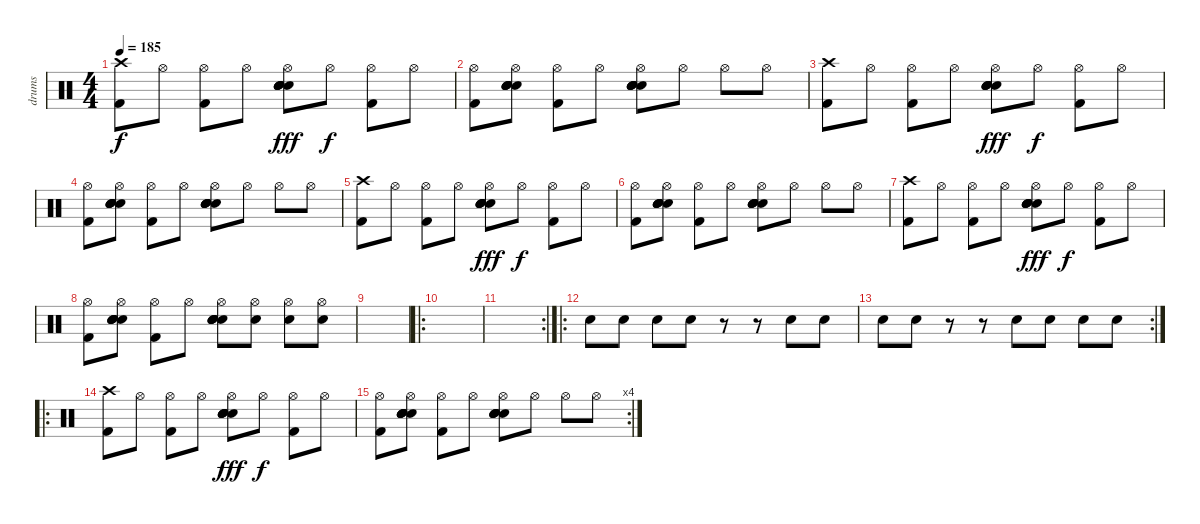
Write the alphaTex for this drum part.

\track ("drums" "drums") {instrument percussion}
\staff {score}
\articulation defaults
\ts (4 4)
\tempo 185
\clef neutral
\ks c
("Crash high (hit)" "Kick (hit) 2").8{dy f} "Hi-Hat (open)".8 ("Hi-Hat (open)" "Kick (hit) 2").8 "Hi-Hat (open)".8 ("Hi-Hat (open)" "Electric Snare (hit)" "Electric Snare (hit)" "Electric Snare (hit)" "Electric Snare (hit)" "Electric Snare (hit)").8{dy fff} "Hi-Hat (open)".8{dy f} ("Hi-Hat (open)" "Kick (hit) 2").8 "Hi-Hat (open)".8 |
("Hi-Hat (open)" "Kick (hit) 2").8 ("Hi-Hat (open)" "Electric Snare (hit)" "Electric Snare (hit)" "Electric Snare (hit)" "Electric Snare (hit)" "Electric Snare (hit)").8 ("Hi-Hat (open)" "Kick (hit) 2").8 "Hi-Hat (open)".8 ("Hi-Hat (open)" "Electric Snare (hit)" "Electric Snare (hit)" "Electric Snare (hit)" "Electric Snare (hit)" "Electric Snare (hit)").8 "Hi-Hat (open)".8 "Hi-Hat (open)".8 "Hi-Hat (open)".8 |
("Crash high (hit)" "Kick (hit) 2").8 "Hi-Hat (open)".8 ("Hi-Hat (open)" "Kick (hit) 2").8 "Hi-Hat (open)".8 ("Hi-Hat (open)" "Electric Snare (hit)" "Electric Snare (hit)" "Electric Snare (hit)" "Electric Snare (hit)" "Electric Snare (hit)").8{dy fff} "Hi-Hat (open)".8{dy f} ("Hi-Hat (open)" "Kick (hit) 2").8 "Hi-Hat (open)".8 |
("Hi-Hat (open)" "Kick (hit) 2").8 ("Hi-Hat (open)" "Electric Snare (hit)" "Electric Snare (hit)" "Electric Snare (hit)" "Electric Snare (hit)" "Electric Snare (hit)").8 ("Hi-Hat (open)" "Kick (hit) 2").8 "Hi-Hat (open)".8 ("Hi-Hat (open)" "Electric Snare (hit)" "Electric Snare (hit)" "Electric Snare (hit)" "Electric Snare (hit)" "Electric Snare (hit)").8 "Hi-Hat (open)".8 "Hi-Hat (open)".8 "Hi-Hat (open)".8 |
("Crash high (hit)" "Kick (hit) 2").8 "Hi-Hat (open)".8 ("Hi-Hat (open)" "Kick (hit) 2").8 "Hi-Hat (open)".8 ("Hi-Hat (open)" "Electric Snare (hit)" "Electric Snare (hit)" "Electric Snare (hit)" "Electric Snare (hit)" "Electric Snare (hit)").8{dy fff} "Hi-Hat (open)".8{dy f} ("Hi-Hat (open)" "Kick (hit) 2").8 "Hi-Hat (open)".8 |
("Hi-Hat (open)" "Kick (hit) 2").8 ("Hi-Hat (open)" "Electric Snare (hit)" "Electric Snare (hit)" "Electric Snare (hit)" "Electric Snare (hit)" "Electric Snare (hit)").8 ("Hi-Hat (open)" "Kick (hit) 2").8 "Hi-Hat (open)".8 ("Hi-Hat (open)" "Electric Snare (hit)" "Electric Snare (hit)" "Electric Snare (hit)" "Electric Snare (hit)" "Electric Snare (hit)").8 "Hi-Hat (open)".8 "Hi-Hat (open)".8 "Hi-Hat (open)".8 |
("Crash high (hit)" "Kick (hit) 2").8 "Hi-Hat (open)".8 ("Hi-Hat (open)" "Kick (hit) 2").8 "Hi-Hat (open)".8 ("Hi-Hat (open)" "Electric Snare (hit)" "Electric Snare (hit)" "Electric Snare (hit)" "Electric Snare (hit)" "Electric Snare (hit)").8{dy fff} "Hi-Hat (open)".8{dy f} ("Hi-Hat (open)" "Kick (hit) 2").8 "Hi-Hat (open)".8 |
("Hi-Hat (open)" "Kick (hit) 2").8 ("Hi-Hat (open)" "Electric Snare (hit)" "Electric Snare (hit)" "Electric Snare (hit)" "Electric Snare (hit)" "Electric Snare (hit)").8 ("Hi-Hat (open)" "Kick (hit) 2").8 "Hi-Hat (open)".8 ("Hi-Hat (open)" "Electric Snare (hit)" "Electric Snare (hit)" "Electric Snare (hit)" "Electric Snare (hit)" "Electric Snare (hit)").8 ("Hi-Hat (open)" "Electric Snare (hit)").8 ("Hi-Hat (open)" "Electric Snare (hit)").8 ("Hi-Hat (open)" "Electric Snare (hit)").8 |
|
\ro
|
\rc 2
|
\ro "Electric Snare (hit)".8 "Electric Snare (hit)".8 "Electric Snare (hit)".8 "Electric Snare (hit)".8
r.8 r.8 "Electric Snare (hit)".8 "Electric Snare (hit)".8 |
\rc 2 "Electric Snare (hit)".8 "Electric Snare (hit)".8
r.8 r.8 "Electric Snare (hit)".8 "Electric Snare (hit)".8 "Electric Snare (hit)".8 "Electric Snare (hit)".8 |
\ro
("Crash high (hit)" "Kick (hit) 2").8 "Hi-Hat (open)".8 ("Hi-Hat (open)" "Kick (hit) 2").8 "Hi-Hat (open)".8 ("Hi-Hat (open)" "Electric Snare (hit)" "Electric Snare (hit)" "Electric Snare (hit)" "Electric Snare (hit)" "Electric Snare (hit)").8{dy fff} "Hi-Hat (open)".8{dy f} ("Hi-Hat (open)" "Kick (hit) 2").8 "Hi-Hat (open)".8 |
\rc 4
("Hi-Hat (open)" "Kick (hit) 2").8 ("Hi-Hat (open)" "Electric Snare (hit)" "Electric Snare (hit)" "Electric Snare (hit)" "Electric Snare (hit)" "Electric Snare (hit)").8 ("Hi-Hat (open)" "Kick (hit) 2").8 "Hi-Hat (open)".8 ("Hi-Hat (open)" "Electric Snare (hit)" "Electric Snare (hit)" "Electric Snare (hit)" "Electric Snare (hit)" "Electric Snare (hit)").8 "Hi-Hat (open)".8 "Hi-Hat (open)".8 "Hi-Hat (open)".8
